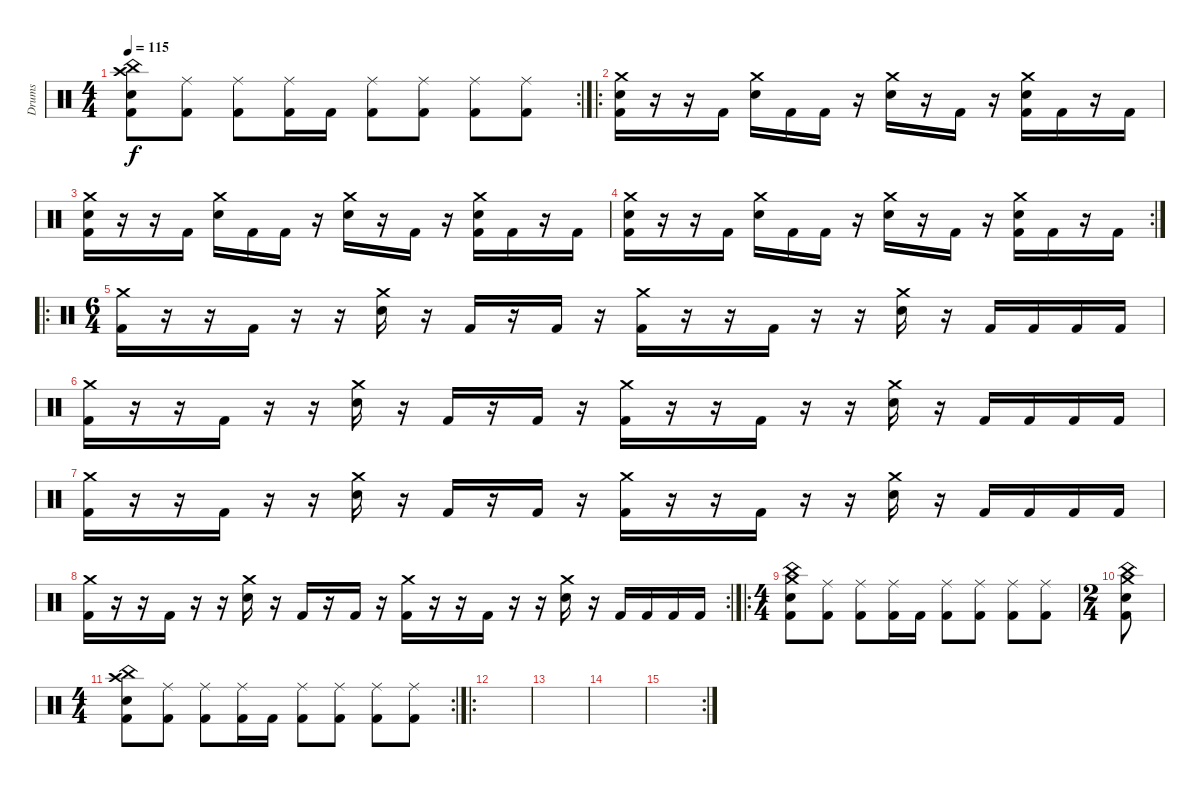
\track ("Drums" "Drums") {instrument percussion}
\staff {score}
\articulation defaults
\rc 2
\ts (4 4)
\tempo 115
\clef neutral
\ks c
("Crash high (hit)" "China (hit)" "Electric Snare (hit)" "Kick (hit) 2").8{dy f} ("Ride (middle)" "Kick (hit) 2").8 ("Ride (middle)" "Kick (hit) 2").8 ("Ride (middle)" "Kick (hit) 2").16 "Kick (hit) 2".16 ("Ride (middle)" "Kick (hit) 2").8 ("Ride (middle)" "Kick (hit) 2").8 ("Ride (middle)" "Kick (hit) 2").8 ("Ride (middle)" "Kick (hit) 2").8 |
\ro
("Crash medium (hit)" "Electric Snare (hit)" "Kick (hit) 2").16 r.16 r.16 "Kick (hit) 2".16 ("Crash medium (hit)" "Electric Snare (hit)").16 "Kick (hit) 2".16 "Kick (hit) 2".16 r.16 ("Crash medium (hit)" "Electric Snare (hit)").16 r.16 "Kick (hit) 2".16 r.16 ("Crash medium (hit)" "Electric Snare (hit)" "Kick (hit) 2").16 "Kick (hit) 2".16 r.16 "Kick (hit) 2".16 |
("Crash medium (hit)" "Electric Snare (hit)" "Kick (hit) 2").16 r.16 r.16 "Kick (hit) 2".16 ("Crash medium (hit)" "Electric Snare (hit)").16 "Kick (hit) 2".16 "Kick (hit) 2".16 r.16 ("Crash medium (hit)" "Electric Snare (hit)").16 r.16 "Kick (hit) 2".16 r.16 ("Crash medium (hit)" "Electric Snare (hit)" "Kick (hit) 2").16 "Kick (hit) 2".16 r.16 "Kick (hit) 2".16 |
\rc 2
("Crash medium (hit)" "Electric Snare (hit)" "Kick (hit) 2").16 r.16 r.16 "Kick (hit) 2".16 ("Crash medium (hit)" "Electric Snare (hit)").16 "Kick (hit) 2".16 "Kick (hit) 2".16 r.16 ("Crash medium (hit)" "Electric Snare (hit)").16 r.16 "Kick (hit) 2".16 r.16 ("Crash medium (hit)" "Electric Snare (hit)" "Kick (hit) 2").16 "Kick (hit) 2".16 r.16 "Kick (hit) 2".16 |
\ro
\ts (6 4)
("Crash medium (hit)" "Kick (hit) 2").16 r.16 r.16 "Kick (hit) 2".16 r.16 r.16 ("Crash medium (hit)" "Electric Snare (hit)").16 r.16 "Kick (hit) 2".16 r.16 "Kick (hit) 2".16 r.16 ("Crash medium (hit)" "Kick (hit) 2").16 r.16 r.16 "Kick (hit) 2".16 r.16 r.16 ("Crash medium (hit)" "Electric Snare (hit)").16 r.16 "Kick (hit) 2".16 "Kick (hit) 2".16 "Kick (hit) 2".16 "Kick (hit) 2".16 |
("Crash medium (hit)" "Kick (hit) 2").16 r.16 r.16 "Kick (hit) 2".16 r.16 r.16 ("Crash medium (hit)" "Electric Snare (hit)").16 r.16 "Kick (hit) 2".16 r.16 "Kick (hit) 2".16 r.16 ("Crash medium (hit)" "Kick (hit) 2").16 r.16 r.16 "Kick (hit) 2".16 r.16 r.16 ("Crash medium (hit)" "Electric Snare (hit)").16 r.16 "Kick (hit) 2".16 "Kick (hit) 2".16 "Kick (hit) 2".16 "Kick (hit) 2".16 |
("Crash medium (hit)" "Kick (hit) 2").16 r.16 r.16 "Kick (hit) 2".16 r.16 r.16 ("Crash medium (hit)" "Electric Snare (hit)").16 r.16 "Kick (hit) 2".16 r.16 "Kick (hit) 2".16 r.16 ("Crash medium (hit)" "Kick (hit) 2").16 r.16 r.16 "Kick (hit) 2".16 r.16 r.16 ("Crash medium (hit)" "Electric Snare (hit)").16 r.16 "Kick (hit) 2".16 "Kick (hit) 2".16 "Kick (hit) 2".16 "Kick (hit) 2".16 |
\rc 2
("Crash medium (hit)" "Kick (hit) 2").16 r.16 r.16 "Kick (hit) 2".16 r.16 r.16 ("Crash medium (hit)" "Electric Snare (hit)").16 r.16 "Kick (hit) 2".16 r.16 "Kick (hit) 2".16 r.16 ("Crash medium (hit)" "Kick (hit) 2").16 r.16 r.16 "Kick (hit) 2".16 r.16 r.16 ("Crash medium (hit)" "Electric Snare (hit)").16 r.16 "Kick (hit) 2".16 "Kick (hit) 2".16 "Kick (hit) 2".16 "Kick (hit) 2".16 |
\ro
\ts (4 4)
("Crash medium (hit)" "China (hit)" "Electric Snare (hit)" "Kick (hit) 2").8 ("Ride (middle)" "Kick (hit) 2").8 ("Ride (middle)" "Kick (hit) 2").8 ("Ride (middle)" "Kick (hit) 2").16 "Kick (hit) 2".16 ("Ride (middle)" "Kick (hit) 2").8 ("Ride (middle)" "Kick (hit) 2").8 ("Ride (middle)" "Kick (hit) 2").8 ("Ride (middle)" "Kick (hit) 2").8 |
\ts (2 4)
("Crash medium (hit)" "China (hit)" "Electric Snare (hit)" "Kick (hit) 2").8 |
\rc 2
\ts (4 4)
("Crash high (hit)" "China (hit)" "Electric Snare (hit)" "Kick (hit) 2").8 ("Ride (middle)" "Kick (hit) 2").8 ("Ride (middle)" "Kick (hit) 2").8 ("Ride (middle)" "Kick (hit) 2").16 "Kick (hit) 2".16 ("Ride (middle)" "Kick (hit) 2").8 ("Ride (middle)" "Kick (hit) 2").8 ("Ride (middle)" "Kick (hit) 2").8 ("Ride (middle)" "Kick (hit) 2").8 |
\ro
|
|
|
\rc 2
